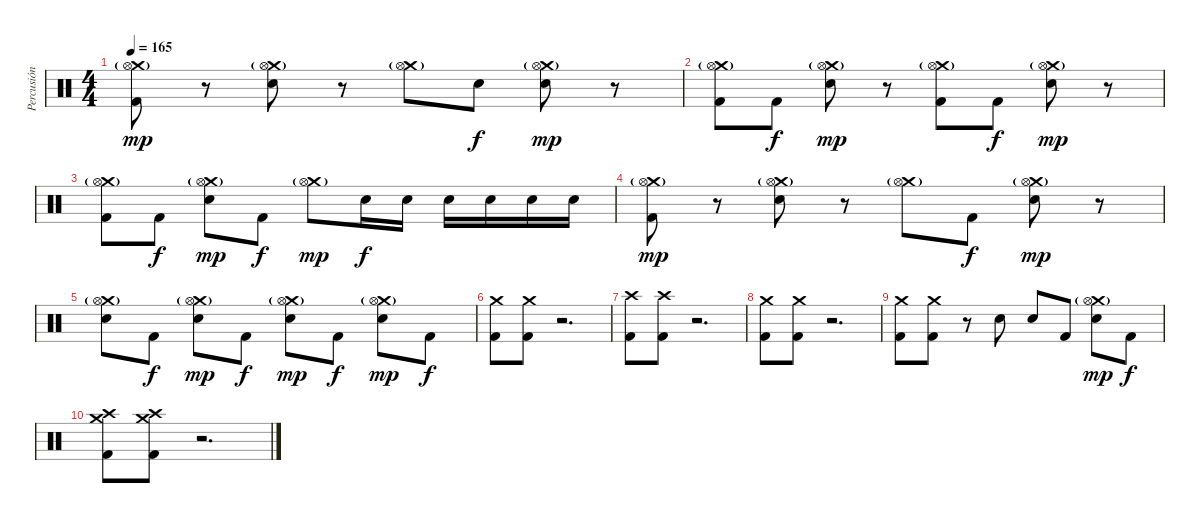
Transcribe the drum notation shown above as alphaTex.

\track ("Percusión" "Percusión") {instrument percussion}
\staff {score}
\articulation defaults
\ts (4 4)
\tempo 165
\clef neutral
\ks c
("Crash medium (hit)"{g} "Hi-Hat (open)" "Kick (hit) 2").8{dy mp} r.8 ("Crash medium (hit)"{g} "Hi-Hat (open)" "Electric Snare (hit)").8 r.8 ("Crash medium (hit)"{g} "Hi-Hat (open)").8 "Electric Snare (hit)".8{dy f} ("Crash medium (hit)"{g} "Hi-Hat (open)" "Electric Snare (hit)").8{dy mp} r.8 |
("Crash medium (hit)"{g} "Hi-Hat (open)" "Kick (hit) 2").8 "Kick (hit) 2".8{dy f} ("Crash medium (hit)"{g} "Hi-Hat (open)" "Electric Snare (hit)").8{dy mp} r.8 ("Crash medium (hit)"{g} "Hi-Hat (open)" "Kick (hit) 2").8 "Kick (hit) 2".8{dy f} ("Crash medium (hit)"{g} "Hi-Hat (open)" "Electric Snare (hit)").8{dy mp} r.8 |
("Crash medium (hit)"{g} "Hi-Hat (open)" "Kick (hit) 2").8 "Kick (hit) 2".8{dy f} ("Crash medium (hit)"{g} "Hi-Hat (open)" "Electric Snare (hit)").8{dy mp} "Kick (hit) 2".8{dy f} ("Crash medium (hit)"{g} "Hi-Hat (open)").8{dy mp} "Electric Snare (hit)".16{dy f} "Electric Snare (hit)".16 "Electric Snare (hit)".16 "Electric Snare (hit)".16 "Electric Snare (hit)".16 "Electric Snare (hit)".16 |
("Crash medium (hit)"{g} "Hi-Hat (open)" "Kick (hit) 2").8{dy mp} r.8 ("Crash medium (hit)"{g} "Hi-Hat (open)" "Electric Snare (hit)").8 r.8 ("Crash medium (hit)"{g} "Hi-Hat (open)").8 "Kick (hit) 2".8{dy f} ("Crash medium (hit)"{g} "Hi-Hat (open)" "Electric Snare (hit)").8{dy mp} r.8 |
("Crash medium (hit)"{g} "Hi-Hat (open)" "Electric Snare (hit)").8 "Kick (hit) 2".8{dy f} ("Crash medium (hit)"{g} "Hi-Hat (open)" "Electric Snare (hit)").8{dy mp} "Kick (hit) 2".8{dy f} ("Crash medium (hit)"{g} "Hi-Hat (open)" "Electric Snare (hit)").8{dy mp} "Kick (hit) 2".8{dy f} ("Crash medium (hit)"{g} "Hi-Hat (open)" "Electric Snare (hit)").8{dy mp} "Kick (hit) 2".8{dy f} |
("Crash medium (hit)" "Kick (hit) 2").8 ("Crash medium (hit)" "Kick (hit) 2").8 r.2{d} |
("Crash high (hit)" "Kick (hit) 2").8 ("Crash high (hit)" "Kick (hit) 2").8 r.2{d} |
("Crash medium (hit)" "Kick (hit) 2").8 ("Crash medium (hit)" "Kick (hit) 2").8 r.2{d} |
("Crash medium (hit)" "Kick (hit) 2").8 ("Crash medium (hit)" "Kick (hit) 2").8 r.8 "Electric Snare (hit)".8 "Electric Snare (hit)".8 "Kick (hit) 2".8 ("Crash medium (hit)"{g} "Hi-Hat (open)" "Electric Snare (hit)").8{dy mp} "Kick (hit) 2".8{dy f} |
("Crash high (hit)" "Crash medium (hit)" "Kick (hit) 2").8 ("Crash high (hit)" "Crash medium (hit)" "Kick (hit) 2").8 r.2{d}
